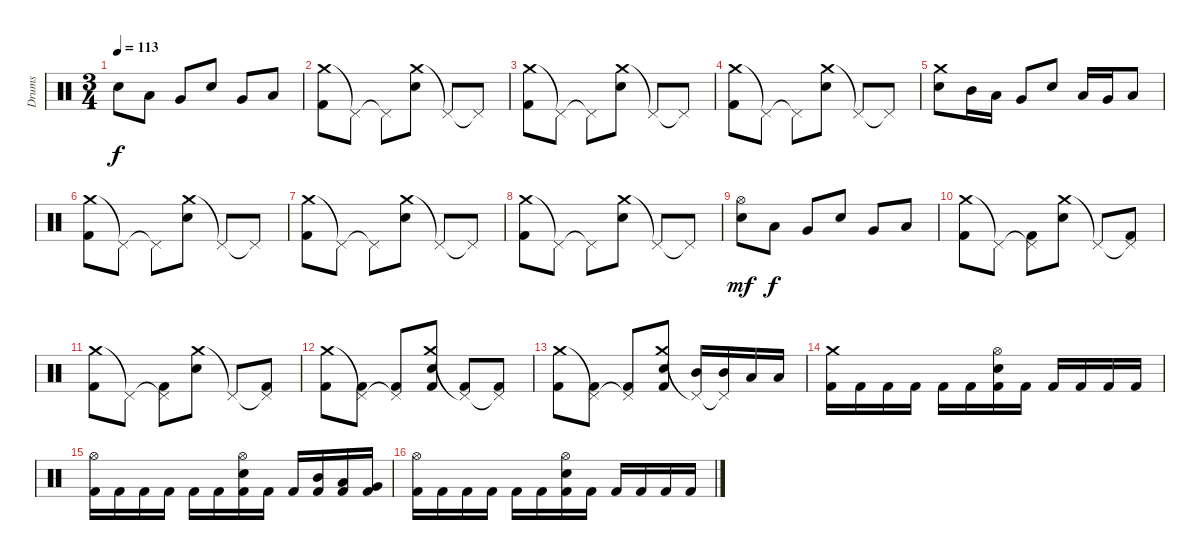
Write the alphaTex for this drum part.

\track ("Drums" "Drums") {instrument percussion}
\staff {score}
\articulation defaults
\ts (3 4)
\tempo 113
\clef neutral
\ks c "Electric Snare (hit)".8{dy f} "Low Tom (hit)".8 "Very Low Tom (hit)".8 "Electric Snare (hit)".8 "Very Low Tom (hit)".8 "Low Floor Tom (hit)".8
|
("Crash medium (hit)" "Kick (hit) 2").8 "Pedal Hi-Hat (hit)"{t}.8 "Pedal Hi-Hat (hit)"{t}.8 ("Crash medium (hit)" "Electric Snare (hit)").8 "Pedal Hi-Hat (hit)"{t}.8 "Pedal Hi-Hat (hit)"{t}.8 |
("Crash medium (hit)" "Kick (hit) 2").8 "Pedal Hi-Hat (hit)"{t}.8 "Pedal Hi-Hat (hit)"{t}.8 ("Crash medium (hit)" "Electric Snare (hit)").8 "Pedal Hi-Hat (hit)"{t}.8 "Pedal Hi-Hat (hit)"{t}.8 |
("Crash medium (hit)" "Kick (hit) 2").8 "Pedal Hi-Hat (hit)"{t}.8 "Pedal Hi-Hat (hit)"{t}.8 ("Crash medium (hit)" "Electric Snare (hit)").8 "Pedal Hi-Hat (hit)"{t}.8 "Pedal Hi-Hat (hit)"{t}.8 |
("Crash medium (hit)" "Electric Snare (hit)").8 "Mid Tom (hit)".16 "Low Tom (hit)".16 "Very Low Tom (hit)".8 "Electric Snare (hit)".8 "Low Tom (hit)".16 "Very Low Tom (hit)".16 "Low Floor Tom (hit)".8 |
("Crash medium (hit)" "Kick (hit) 2").8 "Pedal Hi-Hat (hit)"{t}.8 "Pedal Hi-Hat (hit)"{t}.8 ("Crash medium (hit)" "Electric Snare (hit)").8 "Pedal Hi-Hat (hit)"{t}.8 "Pedal Hi-Hat (hit)"{t}.8 |
("Crash medium (hit)" "Kick (hit) 2").8 "Pedal Hi-Hat (hit)"{t}.8 "Pedal Hi-Hat (hit)"{t}.8 ("Crash medium (hit)" "Electric Snare (hit)").8 "Pedal Hi-Hat (hit)"{t}.8 "Pedal Hi-Hat (hit)"{t}.8 |
("Crash medium (hit)" "Kick (hit) 2").8 "Pedal Hi-Hat (hit)"{t}.8 "Pedal Hi-Hat (hit)"{t}.8 ("Crash medium (hit)" "Electric Snare (hit)").8 "Pedal Hi-Hat (hit)"{t}.8 "Pedal Hi-Hat (hit)"{t}.8 |
("Hi-Hat (open)" "Electric Snare (hit)").8{dy mf} "Low Tom (hit)".8{dy f} "Very Low Tom (hit)".8 "Electric Snare (hit)".8 "Very Low Tom (hit)".8 "Low Floor Tom (hit)".8 |
("Crash medium (hit)" "Kick (hit) 2").8 "Pedal Hi-Hat (hit)"{t}.8 ("Pedal Hi-Hat (hit)"{t} "Kick (hit) 2").8 ("Crash medium (hit)" "Electric Snare (hit)").8 "Pedal Hi-Hat (hit)"{t}.8 ("Pedal Hi-Hat (hit)"{t} "Kick (hit) 2").8 |
("Crash medium (hit)" "Kick (hit) 2").8 "Pedal Hi-Hat (hit)"{t}.8 ("Pedal Hi-Hat (hit)"{t} "Kick (hit) 2").8 ("Crash medium (hit)" "Electric Snare (hit)").8 "Pedal Hi-Hat (hit)"{t}.8 ("Pedal Hi-Hat (hit)"{t} "Kick (hit) 2").8 |
("Crash medium (hit)" "Kick (hit) 2").8 ("Pedal Hi-Hat (hit)"{t} "Kick (hit) 2").8 ("Pedal Hi-Hat (hit)"{t} "Kick (hit) 2").8 ("Crash medium (hit)" "Electric Snare (hit)" "Kick (hit) 2").8 ("Pedal Hi-Hat (hit)"{t} "Kick (hit) 2").8 ("Pedal Hi-Hat (hit)"{t} "Kick (hit) 2").8 |
("Crash medium (hit)" "Kick (hit) 2").8 ("Pedal Hi-Hat (hit)"{t} "Kick (hit) 2").8 ("Pedal Hi-Hat (hit)"{t} "Kick (hit) 2").8 ("Crash medium (hit)" "Electric Snare (hit)" "Kick (hit) 2").8 ("Pedal Hi-Hat (hit)"{t} "Mid Tom (hit)").16 ("Pedal Hi-Hat (hit)"{t} "Mid Tom (hit)").16 "Low Tom (hit)".16 "Low Tom (hit)".16 |
("Crash medium (hit)" "Kick (hit) 2").16 "Kick (hit) 2".16 "Kick (hit) 2".16 "Kick (hit) 2".16 "Kick (hit) 2".16 "Kick (hit) 2".16 ("Hi-Hat (open)" "Electric Snare (hit)" "Kick (hit) 2").16 "Kick (hit) 2".16 "Kick (hit) 2".16 "Kick (hit) 2".16 "Kick (hit) 2".16 "Kick (hit) 2".16 |
("Hi-Hat (open)" "Kick (hit) 2").16 "Kick (hit) 2".16 "Kick (hit) 2".16 "Kick (hit) 2".16 "Kick (hit) 2".16 "Kick (hit) 2".16 ("Hi-Hat (open)" "Electric Snare (hit)" "Kick (hit) 2").16 "Kick (hit) 2".16 "Kick (hit) 2".16 ("Mid Tom (hit)" "Kick (hit) 2").16 ("Low Tom (hit)" "Kick (hit) 2").16 ("Very Low Tom (hit)" "Kick (hit) 2").16 |
("Hi-Hat (open)" "Kick (hit) 2").16 "Kick (hit) 2".16 "Kick (hit) 2".16 "Kick (hit) 2".16 "Kick (hit) 2".16 "Kick (hit) 2".16 ("Hi-Hat (open)" "Electric Snare (hit)" "Kick (hit) 2").16 "Kick (hit) 2".16 "Kick (hit) 2".16 "Kick (hit) 2".16 "Kick (hit) 2".16 "Kick (hit) 2".16
